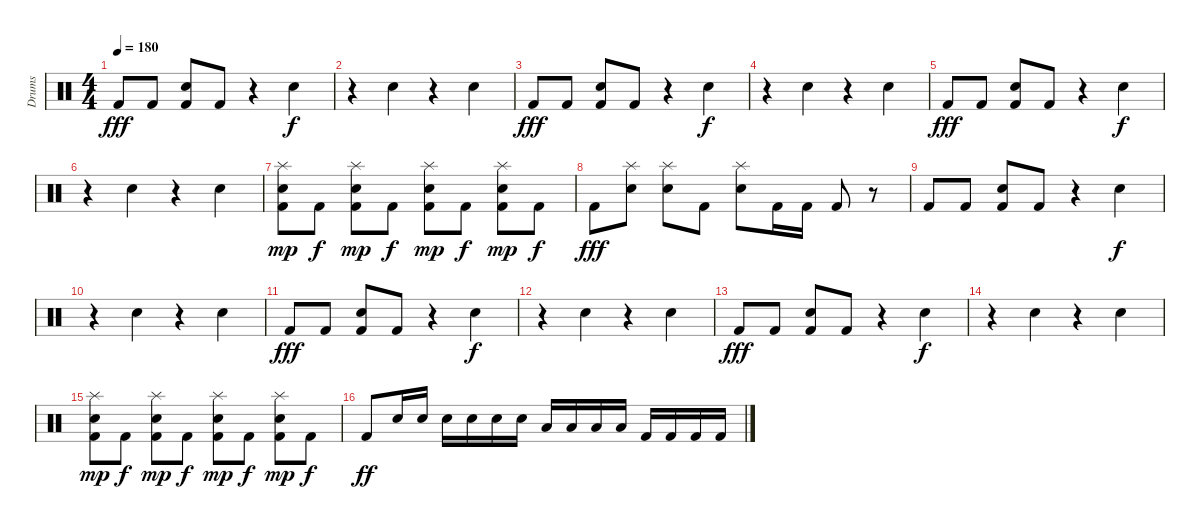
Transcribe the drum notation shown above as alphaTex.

\track ("Drums" "Drums") {instrument percussion}
\staff {score}
\articulation defaults
\ts (4 4)
\tempo 180
\clef neutral
\ks c "Kick (hit) 2".8{dy fff} "Kick (hit) 2".8
("Snare (hit) 2" "Kick (hit) 2").8 "Kick (hit) 2".8 r.4 "Snare (hit) 2".4{dy f} |
r.4 "Snare (hit) 2".4 r.4 "Snare (hit) 2".4 |
"Kick (hit) 2".8{dy fff} "Kick (hit) 2".8 ("Snare (hit) 2" "Kick (hit) 2").8 "Kick (hit) 2".8 r.4 "Snare (hit) 2".4{dy f} |
r.4 "Snare (hit) 2".4 r.4 "Snare (hit) 2".4 |
"Kick (hit) 2".8{dy fff} "Kick (hit) 2".8 ("Snare (hit) 2" "Kick (hit) 2").8 "Kick (hit) 2".8 r.4 "Snare (hit) 2".4{dy f} |
r.4 "Snare (hit) 2".4 r.4 "Snare (hit) 2".4 |
("Splash (hit)" "Snare (hit) 2" "Kick (hit) 2").8{dy mp} "Kick (hit) 2".8{dy f} ("Splash (hit)" "Snare (hit) 2" "Kick (hit) 2").8{dy mp} "Kick (hit) 2".8{dy f} ("Splash (hit)" "Snare (hit) 2" "Kick (hit) 2").8{dy mp} "Kick (hit) 2".8{dy f} ("Splash (hit)" "Snare (hit) 2" "Kick (hit) 2").8{dy mp} "Kick (hit) 2".8{dy f} |
"Kick (hit) 2".8{dy fff} ("Splash (hit)" "Snare (hit) 2").8 ("Splash (hit)" "Snare (hit) 2").8 "Kick (hit) 2".8 ("Splash (hit)" "Snare (hit) 2").8 "Kick (hit) 2".16 "Kick (hit) 2".16 "Kick (hit) 2".8 r.8 |
"Kick (hit) 2".8 "Kick (hit) 2".8 ("Snare (hit) 2" "Kick (hit) 2").8 "Kick (hit) 2".8 r.4 "Snare (hit) 2".4{dy f} |
r.4 "Snare (hit) 2".4 r.4 "Snare (hit) 2".4 |
"Kick (hit) 2".8{dy fff} "Kick (hit) 2".8 ("Snare (hit) 2" "Kick (hit) 2").8 "Kick (hit) 2".8 r.4 "Snare (hit) 2".4{dy f} |
r.4 "Snare (hit) 2".4 r.4 "Snare (hit) 2".4 |
"Kick (hit) 2".8{dy fff} "Kick (hit) 2".8 ("Snare (hit) 2" "Kick (hit) 2").8 "Kick (hit) 2".8 r.4 "Snare (hit) 2".4{dy f} |
r.4 "Snare (hit) 2".4 r.4 "Snare (hit) 2".4 |
("Splash (hit)" "Snare (hit) 2" "Kick (hit) 2").8{dy mp} "Kick (hit) 2".8{dy f} ("Splash (hit)" "Snare (hit) 2" "Kick (hit) 2").8{dy mp} "Kick (hit) 2".8{dy f} ("Splash (hit)" "Snare (hit) 2" "Kick (hit) 2").8{dy mp} "Kick (hit) 2".8{dy f} ("Splash (hit)" "Snare (hit) 2" "Kick (hit) 2").8{dy mp} "Kick (hit) 2".8{dy f} |
"Kick (hit) 2".8{dy ff} "Snare (hit) 2".16 "Snare (hit) 2".16 "Snare (hit) 2".16 "Snare (hit) 2".16 "Snare (hit) 2".16 "Snare (hit) 2".16 "Low Tom (hit)".16 "Low Tom (hit)".16 "Low Tom (hit)".16 "Low Tom (hit)".16 "Kick (hit) 2".16 "Kick (hit) 2".16 "Kick (hit) 2".16 "Kick (hit) 2".16
